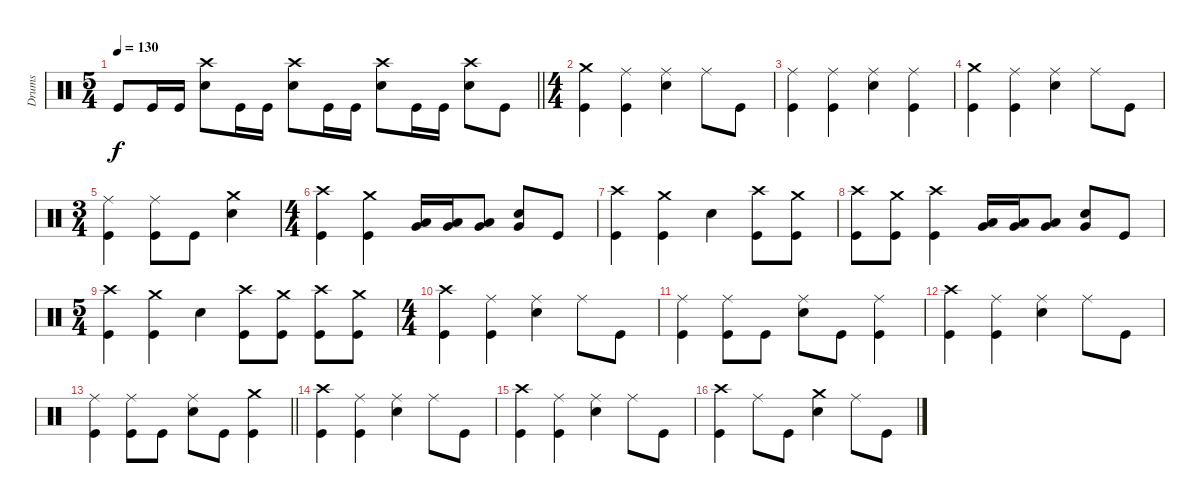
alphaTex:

\track ("Drums" "Drums") {instrument percussion}
\staff {score}
\articulation defaults
\ts (5 4)
\tempo 130
\clef neutral
\barLineRight lightlight
\ks c "Kick (hit)".8{dy f} "Kick (hit)".16 "Kick (hit)".16
("Crash high (hit)" "Snare (hit) 2").8 "Kick (hit)".16 "Kick (hit)".16 ("Crash high (hit)" "Snare (hit) 2").8 "Kick (hit)".16 "Kick (hit)".16 ("Crash high (hit)" "Snare (hit) 2").8 "Kick (hit)".16 "Kick (hit)".16 ("Crash high (hit)" "Snare (hit) 2").8 "Kick (hit)".8 |
\ts (4 4)
("Crash medium (hit)" "Kick (hit)").4 ("Ride (middle)" "Kick (hit)").4 ("Ride (middle)" "Snare (hit) 2").4 "Ride (middle)".8 "Kick (hit)".8 |
("Ride (middle)" "Kick (hit)").4 ("Ride (middle)" "Kick (hit)").4 ("Ride (middle)" "Snare (hit) 2").4 ("Ride (middle)" "Kick (hit)").4 |
("Crash medium (hit)" "Kick (hit)").4 ("Ride (middle)" "Kick (hit)").4 ("Ride (middle)" "Snare (hit) 2").4 "Ride (middle)".8 "Kick (hit)".8 |
\ts (3 4)
("Ride (middle)" "Kick (hit)").4 ("Ride (middle)" "Kick (hit)").8 "Kick (hit)".8 ("Crash medium (hit)" "Snare (hit) 2").4 |
\ts (4 4)
("Crash high (hit)" "Kick (hit)").4 ("Crash medium (hit)" "Kick (hit)").4 ("Low Tom (hit)" "Very Low Tom (hit)").16 ("Low Tom (hit)" "Very Low Tom (hit)").16 ("Low Tom (hit)" "Very Low Tom (hit)").8 ("Snare (hit) 2" "Very Low Tom (hit)").8 "Kick (hit)".8 |
("Crash high (hit)" "Kick (hit)").4 ("Crash medium (hit)" "Kick (hit)").4 "Snare (hit) 2".4 ("Crash high (hit)" "Kick (hit)").8 ("Crash medium (hit)" "Kick (hit)").8 |
("Crash high (hit)" "Kick (hit)").8 ("Crash medium (hit)" "Kick (hit)").8 ("Crash high (hit)" "Kick (hit)").4 ("Low Tom (hit)" "Very Low Tom (hit)").16 ("Low Tom (hit)" "Very Low Tom (hit)").16 ("Low Tom (hit)" "Very Low Tom (hit)").8 ("Snare (hit) 2" "Very Low Tom (hit)").8 "Kick (hit)".8 |
\ts (5 4)
("Crash high (hit)" "Kick (hit)").4 ("Crash medium (hit)" "Kick (hit)").4 "Snare (hit) 2".4 ("Crash high (hit)" "Kick (hit)").8 ("Crash medium (hit)" "Kick (hit)").8 ("Crash high (hit)" "Kick (hit)").8 ("Crash medium (hit)" "Kick (hit)").8 |
\ts (4 4)
("Crash high (hit)" "Kick (hit)").4 ("Ride (middle)" "Kick (hit)").4 ("Ride (middle)" "Snare (hit) 2").4 "Ride (middle)".8 "Kick (hit)".8 |
("Ride (middle)" "Kick (hit)").4 ("Ride (middle)" "Kick (hit)").8 "Kick (hit)".8 ("Ride (middle)" "Snare (hit) 2").8 "Kick (hit)".8 ("Ride (middle)" "Kick (hit)").4 |
("Crash high (hit)" "Kick (hit)").4 ("Ride (middle)" "Kick (hit)").4 ("Ride (middle)" "Snare (hit) 2").4 "Ride (middle)".8 "Kick (hit)".8 |
\barLineRight lightlight
("Ride (middle)" "Kick (hit)").4 ("Ride (middle)" "Kick (hit)").8 "Kick (hit)".8 ("Ride (middle)" "Snare (hit) 2").8 "Kick (hit)".8 ("Crash medium (hit)" "Kick (hit)").4 |
("Crash high (hit)" "Kick (hit)").4 ("Ride (middle)" "Kick (hit)").4 ("Ride (middle)" "Snare (hit) 2").4 "Ride (middle)".8 "Kick (hit)".8 |
("Crash high (hit)" "Kick (hit)").4 ("Ride (middle)" "Kick (hit)").4 ("Ride (middle)" "Snare (hit) 2").4 "Ride (middle)".8 "Kick (hit)".8 |
("Crash high (hit)" "Kick (hit)").4 "Ride (middle)".8 "Kick (hit)".8 ("Crash medium (hit)" "Snare (hit) 2").4 "Ride (middle)".8 "Kick (hit)".8
